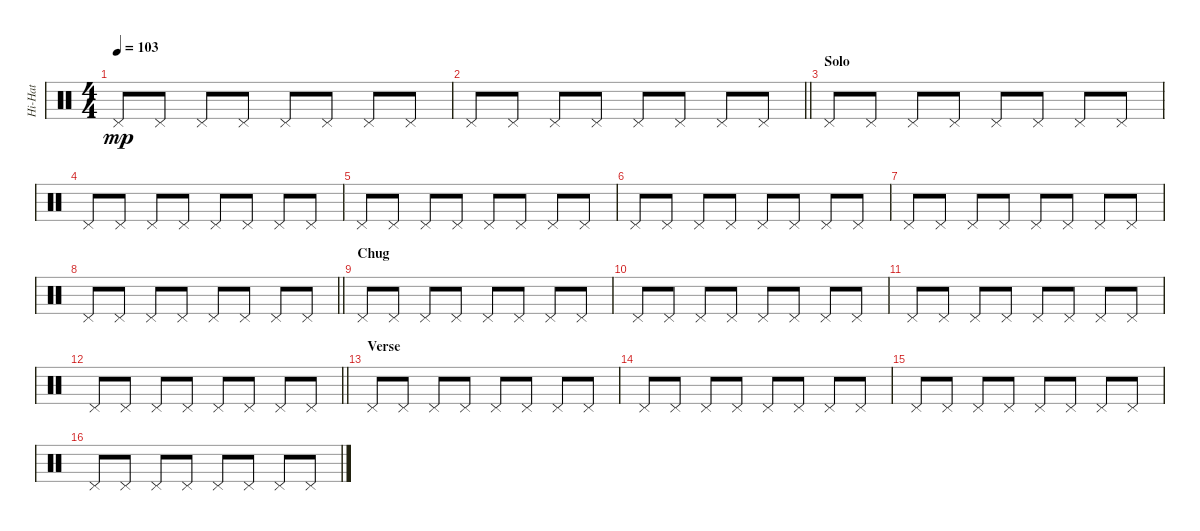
\track ("Hi-Hat" "Hi-Hat") {instrument percussion}
\staff {score}
\articulation defaults
\ts (4 4)
\tempo 103
\clef neutral
\ks c "Pedal Hi-Hat (hit)".8{dy mp} "Pedal Hi-Hat (hit)".8 "Pedal Hi-Hat (hit)".8 "Pedal Hi-Hat (hit)".8 "Pedal Hi-Hat (hit)".8 "Pedal Hi-Hat (hit)".8 "Pedal Hi-Hat (hit)".8 "Pedal Hi-Hat (hit)".8
|
\barLineRight lightlight "Pedal Hi-Hat (hit)".8 "Pedal Hi-Hat (hit)".8 "Pedal Hi-Hat (hit)".8 "Pedal Hi-Hat (hit)".8 "Pedal Hi-Hat (hit)".8 "Pedal Hi-Hat (hit)".8 "Pedal Hi-Hat (hit)".8 "Pedal Hi-Hat (hit)".8
|
\section ("" "Solo")
"Pedal Hi-Hat (hit)".8 "Pedal Hi-Hat (hit)".8 "Pedal Hi-Hat (hit)".8 "Pedal Hi-Hat (hit)".8 "Pedal Hi-Hat (hit)".8 "Pedal Hi-Hat (hit)".8 "Pedal Hi-Hat (hit)".8 "Pedal Hi-Hat (hit)".8 |
"Pedal Hi-Hat (hit)".8 "Pedal Hi-Hat (hit)".8 "Pedal Hi-Hat (hit)".8 "Pedal Hi-Hat (hit)".8 "Pedal Hi-Hat (hit)".8 "Pedal Hi-Hat (hit)".8 "Pedal Hi-Hat (hit)".8 "Pedal Hi-Hat (hit)".8 |
"Pedal Hi-Hat (hit)".8 "Pedal Hi-Hat (hit)".8 "Pedal Hi-Hat (hit)".8 "Pedal Hi-Hat (hit)".8 "Pedal Hi-Hat (hit)".8 "Pedal Hi-Hat (hit)".8 "Pedal Hi-Hat (hit)".8 "Pedal Hi-Hat (hit)".8 |
"Pedal Hi-Hat (hit)".8 "Pedal Hi-Hat (hit)".8 "Pedal Hi-Hat (hit)".8 "Pedal Hi-Hat (hit)".8 "Pedal Hi-Hat (hit)".8 "Pedal Hi-Hat (hit)".8 "Pedal Hi-Hat (hit)".8 "Pedal Hi-Hat (hit)".8 |
"Pedal Hi-Hat (hit)".8 "Pedal Hi-Hat (hit)".8 "Pedal Hi-Hat (hit)".8 "Pedal Hi-Hat (hit)".8 "Pedal Hi-Hat (hit)".8 "Pedal Hi-Hat (hit)".8 "Pedal Hi-Hat (hit)".8 "Pedal Hi-Hat (hit)".8 |
\barLineRight lightlight "Pedal Hi-Hat (hit)".8 "Pedal Hi-Hat (hit)".8 "Pedal Hi-Hat (hit)".8 "Pedal Hi-Hat (hit)".8 "Pedal Hi-Hat (hit)".8 "Pedal Hi-Hat (hit)".8 "Pedal Hi-Hat (hit)".8 "Pedal Hi-Hat (hit)".8
|
\section ("" "Chug")
"Pedal Hi-Hat (hit)".8 "Pedal Hi-Hat (hit)".8 "Pedal Hi-Hat (hit)".8 "Pedal Hi-Hat (hit)".8 "Pedal Hi-Hat (hit)".8 "Pedal Hi-Hat (hit)".8 "Pedal Hi-Hat (hit)".8 "Pedal Hi-Hat (hit)".8 |
"Pedal Hi-Hat (hit)".8 "Pedal Hi-Hat (hit)".8 "Pedal Hi-Hat (hit)".8 "Pedal Hi-Hat (hit)".8 "Pedal Hi-Hat (hit)".8 "Pedal Hi-Hat (hit)".8 "Pedal Hi-Hat (hit)".8 "Pedal Hi-Hat (hit)".8 |
"Pedal Hi-Hat (hit)".8 "Pedal Hi-Hat (hit)".8 "Pedal Hi-Hat (hit)".8 "Pedal Hi-Hat (hit)".8 "Pedal Hi-Hat (hit)".8 "Pedal Hi-Hat (hit)".8 "Pedal Hi-Hat (hit)".8 "Pedal Hi-Hat (hit)".8 |
\barLineRight lightlight "Pedal Hi-Hat (hit)".8 "Pedal Hi-Hat (hit)".8 "Pedal Hi-Hat (hit)".8 "Pedal Hi-Hat (hit)".8 "Pedal Hi-Hat (hit)".8 "Pedal Hi-Hat (hit)".8 "Pedal Hi-Hat (hit)".8 "Pedal Hi-Hat (hit)".8
|
\section ("" "Verse")
"Pedal Hi-Hat (hit)".8 "Pedal Hi-Hat (hit)".8 "Pedal Hi-Hat (hit)".8 "Pedal Hi-Hat (hit)".8 "Pedal Hi-Hat (hit)".8 "Pedal Hi-Hat (hit)".8 "Pedal Hi-Hat (hit)".8 "Pedal Hi-Hat (hit)".8 |
"Pedal Hi-Hat (hit)".8 "Pedal Hi-Hat (hit)".8 "Pedal Hi-Hat (hit)".8 "Pedal Hi-Hat (hit)".8 "Pedal Hi-Hat (hit)".8 "Pedal Hi-Hat (hit)".8 "Pedal Hi-Hat (hit)".8 "Pedal Hi-Hat (hit)".8 |
"Pedal Hi-Hat (hit)".8 "Pedal Hi-Hat (hit)".8 "Pedal Hi-Hat (hit)".8 "Pedal Hi-Hat (hit)".8 "Pedal Hi-Hat (hit)".8 "Pedal Hi-Hat (hit)".8 "Pedal Hi-Hat (hit)".8 "Pedal Hi-Hat (hit)".8 |
"Pedal Hi-Hat (hit)".8 "Pedal Hi-Hat (hit)".8 "Pedal Hi-Hat (hit)".8 "Pedal Hi-Hat (hit)".8 "Pedal Hi-Hat (hit)".8 "Pedal Hi-Hat (hit)".8 "Pedal Hi-Hat (hit)".8 "Pedal Hi-Hat (hit)".8
